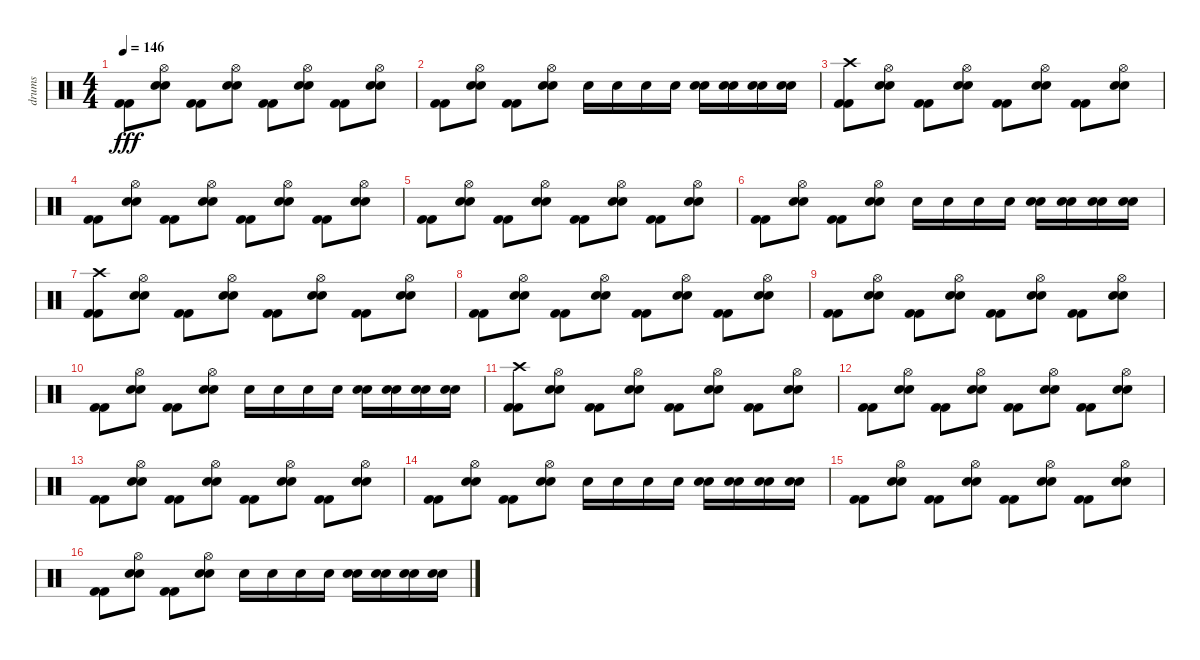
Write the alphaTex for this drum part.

\track ("drums" "drums") {instrument percussion}
\staff {score}
\articulation defaults
\ts (4 4)
\tempo 146
\clef neutral
\ks c
("Kick (hit) 2" "Kick (hit) 2").8{dy fff} ("Hi-Hat (open)" "Electric Snare (hit)" "Electric Snare (hit)").8 ("Kick (hit) 2" "Kick (hit) 2").8 ("Hi-Hat (open)" "Electric Snare (hit)" "Electric Snare (hit)").8 ("Kick (hit) 2" "Kick (hit) 2").8 ("Hi-Hat (open)" "Electric Snare (hit)" "Electric Snare (hit)").8 ("Kick (hit) 2" "Kick (hit) 2").8 ("Hi-Hat (open)" "Electric Snare (hit)" "Electric Snare (hit)").8 |
("Kick (hit) 2" "Kick (hit) 2").8 ("Hi-Hat (open)" "Electric Snare (hit)" "Electric Snare (hit)").8 ("Kick (hit) 2" "Kick (hit) 2").8 ("Hi-Hat (open)" "Electric Snare (hit)" "Electric Snare (hit)").8 "Electric Snare (hit)".16 "Electric Snare (hit)".16 "Electric Snare (hit)".16 "Electric Snare (hit)".16 ("Electric Snare (hit)" "Electric Snare (hit)").16 ("Electric Snare (hit)" "Electric Snare (hit)").16 ("Electric Snare (hit)" "Electric Snare (hit)").16 ("Electric Snare (hit)" "Electric Snare (hit)").16 |
("Crash high (hit)" "Kick (hit) 2" "Kick (hit) 2").8 ("Hi-Hat (open)" "Electric Snare (hit)" "Electric Snare (hit)").8 ("Kick (hit) 2" "Kick (hit) 2").8 ("Hi-Hat (open)" "Electric Snare (hit)" "Electric Snare (hit)").8 ("Kick (hit) 2" "Kick (hit) 2").8 ("Hi-Hat (open)" "Electric Snare (hit)" "Electric Snare (hit)").8 ("Kick (hit) 2" "Kick (hit) 2").8 ("Hi-Hat (open)" "Electric Snare (hit)" "Electric Snare (hit)").8 |
("Kick (hit) 2" "Kick (hit) 2").8 ("Hi-Hat (open)" "Electric Snare (hit)" "Electric Snare (hit)").8 ("Kick (hit) 2" "Kick (hit) 2").8 ("Hi-Hat (open)" "Electric Snare (hit)" "Electric Snare (hit)").8 ("Kick (hit) 2" "Kick (hit) 2").8 ("Hi-Hat (open)" "Electric Snare (hit)" "Electric Snare (hit)").8 ("Kick (hit) 2" "Kick (hit) 2").8 ("Hi-Hat (open)" "Electric Snare (hit)" "Electric Snare (hit)").8 |
("Kick (hit) 2" "Kick (hit) 2").8 ("Hi-Hat (open)" "Electric Snare (hit)" "Electric Snare (hit)").8 ("Kick (hit) 2" "Kick (hit) 2").8 ("Hi-Hat (open)" "Electric Snare (hit)" "Electric Snare (hit)").8 ("Kick (hit) 2" "Kick (hit) 2").8 ("Hi-Hat (open)" "Electric Snare (hit)" "Electric Snare (hit)").8 ("Kick (hit) 2" "Kick (hit) 2").8 ("Hi-Hat (open)" "Electric Snare (hit)" "Electric Snare (hit)").8 |
("Kick (hit) 2" "Kick (hit) 2").8 ("Hi-Hat (open)" "Electric Snare (hit)" "Electric Snare (hit)").8 ("Kick (hit) 2" "Kick (hit) 2").8 ("Hi-Hat (open)" "Electric Snare (hit)" "Electric Snare (hit)").8 "Electric Snare (hit)".16 "Electric Snare (hit)".16 "Electric Snare (hit)".16 "Electric Snare (hit)".16 ("Electric Snare (hit)" "Electric Snare (hit)").16 ("Electric Snare (hit)" "Electric Snare (hit)").16 ("Electric Snare (hit)" "Electric Snare (hit)").16 ("Electric Snare (hit)" "Electric Snare (hit)").16 |
("Crash high (hit)" "Kick (hit) 2" "Kick (hit) 2").8 ("Hi-Hat (open)" "Electric Snare (hit)" "Electric Snare (hit)").8 ("Kick (hit) 2" "Kick (hit) 2").8 ("Hi-Hat (open)" "Electric Snare (hit)" "Electric Snare (hit)").8 ("Kick (hit) 2" "Kick (hit) 2").8 ("Hi-Hat (open)" "Electric Snare (hit)" "Electric Snare (hit)").8 ("Kick (hit) 2" "Kick (hit) 2").8 ("Hi-Hat (open)" "Electric Snare (hit)" "Electric Snare (hit)").8 |
("Kick (hit) 2" "Kick (hit) 2").8 ("Hi-Hat (open)" "Electric Snare (hit)" "Electric Snare (hit)").8 ("Kick (hit) 2" "Kick (hit) 2").8 ("Hi-Hat (open)" "Electric Snare (hit)" "Electric Snare (hit)").8 ("Kick (hit) 2" "Kick (hit) 2").8 ("Hi-Hat (open)" "Electric Snare (hit)" "Electric Snare (hit)").8 ("Kick (hit) 2" "Kick (hit) 2").8 ("Hi-Hat (open)" "Electric Snare (hit)" "Electric Snare (hit)").8 |
("Kick (hit) 2" "Kick (hit) 2").8 ("Hi-Hat (open)" "Electric Snare (hit)" "Electric Snare (hit)").8 ("Kick (hit) 2" "Kick (hit) 2").8 ("Hi-Hat (open)" "Electric Snare (hit)" "Electric Snare (hit)").8 ("Kick (hit) 2" "Kick (hit) 2").8 ("Hi-Hat (open)" "Electric Snare (hit)" "Electric Snare (hit)").8 ("Kick (hit) 2" "Kick (hit) 2").8 ("Hi-Hat (open)" "Electric Snare (hit)" "Electric Snare (hit)").8 |
("Kick (hit) 2" "Kick (hit) 2").8 ("Hi-Hat (open)" "Electric Snare (hit)" "Electric Snare (hit)").8 ("Kick (hit) 2" "Kick (hit) 2").8 ("Hi-Hat (open)" "Electric Snare (hit)" "Electric Snare (hit)").8 "Electric Snare (hit)".16 "Electric Snare (hit)".16 "Electric Snare (hit)".16 "Electric Snare (hit)".16 ("Electric Snare (hit)" "Electric Snare (hit)").16 ("Electric Snare (hit)" "Electric Snare (hit)").16 ("Electric Snare (hit)" "Electric Snare (hit)").16 ("Electric Snare (hit)" "Electric Snare (hit)").16 |
("Crash high (hit)" "Kick (hit) 2" "Kick (hit) 2").8 ("Hi-Hat (open)" "Electric Snare (hit)" "Electric Snare (hit)").8 ("Kick (hit) 2" "Kick (hit) 2").8 ("Hi-Hat (open)" "Electric Snare (hit)" "Electric Snare (hit)").8 ("Kick (hit) 2" "Kick (hit) 2").8 ("Hi-Hat (open)" "Electric Snare (hit)" "Electric Snare (hit)").8 ("Kick (hit) 2" "Kick (hit) 2").8 ("Hi-Hat (open)" "Electric Snare (hit)" "Electric Snare (hit)").8 |
("Kick (hit) 2" "Kick (hit) 2").8 ("Hi-Hat (open)" "Electric Snare (hit)" "Electric Snare (hit)").8 ("Kick (hit) 2" "Kick (hit) 2").8 ("Hi-Hat (open)" "Electric Snare (hit)" "Electric Snare (hit)").8 ("Kick (hit) 2" "Kick (hit) 2").8 ("Hi-Hat (open)" "Electric Snare (hit)" "Electric Snare (hit)").8 ("Kick (hit) 2" "Kick (hit) 2").8 ("Hi-Hat (open)" "Electric Snare (hit)" "Electric Snare (hit)").8 |
("Kick (hit) 2" "Kick (hit) 2").8 ("Hi-Hat (open)" "Electric Snare (hit)" "Electric Snare (hit)").8 ("Kick (hit) 2" "Kick (hit) 2").8 ("Hi-Hat (open)" "Electric Snare (hit)" "Electric Snare (hit)").8 ("Kick (hit) 2" "Kick (hit) 2").8 ("Hi-Hat (open)" "Electric Snare (hit)" "Electric Snare (hit)").8 ("Kick (hit) 2" "Kick (hit) 2").8 ("Hi-Hat (open)" "Electric Snare (hit)" "Electric Snare (hit)").8 |
("Kick (hit) 2" "Kick (hit) 2").8 ("Hi-Hat (open)" "Electric Snare (hit)" "Electric Snare (hit)").8 ("Kick (hit) 2" "Kick (hit) 2").8 ("Hi-Hat (open)" "Electric Snare (hit)" "Electric Snare (hit)").8 "Electric Snare (hit)".16 "Electric Snare (hit)".16 "Electric Snare (hit)".16 "Electric Snare (hit)".16 ("Electric Snare (hit)" "Electric Snare (hit)").16 ("Electric Snare (hit)" "Electric Snare (hit)").16 ("Electric Snare (hit)" "Electric Snare (hit)").16 ("Electric Snare (hit)" "Electric Snare (hit)").16 |
("Kick (hit) 2" "Kick (hit) 2").8 ("Hi-Hat (open)" "Electric Snare (hit)" "Electric Snare (hit)").8 ("Kick (hit) 2" "Kick (hit) 2").8 ("Hi-Hat (open)" "Electric Snare (hit)" "Electric Snare (hit)").8 ("Kick (hit) 2" "Kick (hit) 2").8 ("Hi-Hat (open)" "Electric Snare (hit)" "Electric Snare (hit)").8 ("Kick (hit) 2" "Kick (hit) 2").8 ("Hi-Hat (open)" "Electric Snare (hit)" "Electric Snare (hit)").8 |
("Kick (hit) 2" "Kick (hit) 2").8 ("Hi-Hat (open)" "Electric Snare (hit)" "Electric Snare (hit)").8 ("Kick (hit) 2" "Kick (hit) 2").8 ("Hi-Hat (open)" "Electric Snare (hit)" "Electric Snare (hit)").8 "Electric Snare (hit)".16 "Electric Snare (hit)".16 "Electric Snare (hit)".16 "Electric Snare (hit)".16 ("Electric Snare (hit)" "Electric Snare (hit)").16 ("Electric Snare (hit)" "Electric Snare (hit)").16 ("Electric Snare (hit)" "Electric Snare (hit)").16 ("Electric Snare (hit)" "Electric Snare (hit)").16
